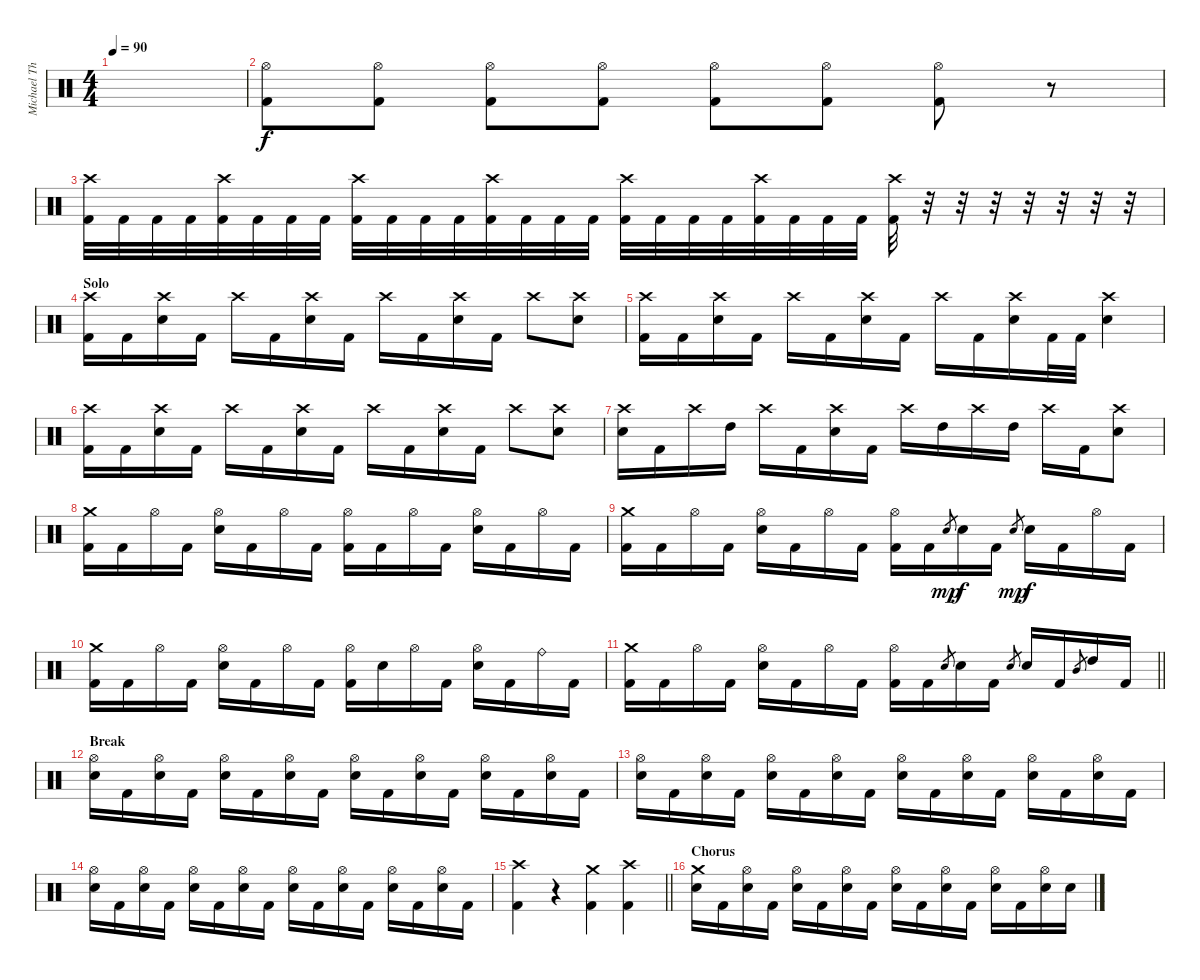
\track ("Michael Thomas" "Michael Th") {instrument percussion}
\staff {score}
\articulation defaults
\ts (4 4)
\tempo 90
\clef neutral
\ks c
|
("Hi-Hat (open)" "Kick (hit) 2").8 ("Hi-Hat (open)" "Kick (hit) 2").8 ("Hi-Hat (open)" "Kick (hit) 2").8 ("Hi-Hat (open)" "Kick (hit) 2").8 ("Hi-Hat (open)" "Kick (hit) 2").8 ("Hi-Hat (open)" "Kick (hit) 2").8 ("Hi-Hat (open)" "Kick (hit) 2").8 r.8 |
("Crash high (hit)" "Kick (hit) 2").32 "Kick (hit) 2".32 "Kick (hit) 2".32 "Kick (hit) 2".32 ("Crash high (hit)" "Kick (hit) 2").32 "Kick (hit) 2".32 "Kick (hit) 2".32 "Kick (hit) 2".32 ("Crash high (hit)" "Kick (hit) 2").32 "Kick (hit) 2".32 "Kick (hit) 2".32 "Kick (hit) 2".32 ("Crash high (hit)" "Kick (hit) 2").32 "Kick (hit) 2".32 "Kick (hit) 2".32 "Kick (hit) 2".32 ("Crash high (hit)" "Kick (hit) 2").32 "Kick (hit) 2".32 "Kick (hit) 2".32 "Kick (hit) 2".32 ("Crash high (hit)" "Kick (hit) 2").32 "Kick (hit) 2".32 "Kick (hit) 2".32 "Kick (hit) 2".32 ("Crash high (hit)" "Kick (hit) 2").32 r.32 r.32 r.32 r.32 r.32 r.32 r.32 |
\section ("" "Solo")
("Crash high (hit)" "Kick (hit) 2").16 "Kick (hit) 2".16 ("Crash high (hit)" "Electric Snare (hit)").16 "Kick (hit) 2".16 "Crash high (hit)".16 "Kick (hit) 2".16 ("Crash high (hit)" "Electric Snare (hit)").16 "Kick (hit) 2".16 "Crash high (hit)".16 "Kick (hit) 2".16 ("Crash high (hit)" "Electric Snare (hit)").16 "Kick (hit) 2".16 "Crash high (hit)".8 ("Crash high (hit)" "Electric Snare (hit)").8 |
("Crash high (hit)" "Kick (hit) 2").16 "Kick (hit) 2".16 ("Crash high (hit)" "Electric Snare (hit)").16 "Kick (hit) 2".16 "Crash high (hit)".16 "Kick (hit) 2".16 ("Crash high (hit)" "Electric Snare (hit)").16 "Kick (hit) 2".16 "Crash high (hit)".16 "Kick (hit) 2".16 ("Crash high (hit)" "Electric Snare (hit)").16 "Kick (hit) 2".32 "Kick (hit) 2".32 ("Crash high (hit)" "Electric Snare (hit)").4 |
("Crash high (hit)" "Kick (hit) 2").16 "Kick (hit) 2".16 ("Crash high (hit)" "Electric Snare (hit)").16 "Kick (hit) 2".16 "Crash high (hit)".16 "Kick (hit) 2".16 ("Crash high (hit)" "Electric Snare (hit)").16 "Kick (hit) 2".16 "Crash high (hit)".16 "Kick (hit) 2".16 ("Crash high (hit)" "Electric Snare (hit)").16 "Kick (hit) 2".16 "Crash high (hit)".8 ("Crash high (hit)" "Electric Snare (hit)").8 |
("Crash high (hit)" "Electric Snare (hit)").16 "Kick (hit) 2".16 "Crash high (hit)".16 "High Tom (hit)".16 "Crash high (hit)".16 "Kick (hit) 2".16 ("Crash high (hit)" "Electric Snare (hit)").16 "Kick (hit) 2".16 "Crash high (hit)".16 "High Tom (hit)".16 "Crash high (hit)".16 "High Tom (hit)".16 "Crash high (hit)".16 "Kick (hit) 2".16 ("Crash high (hit)" "Electric Snare (hit)").8 |
("Crash medium (hit)" "Kick (hit) 2").16 "Kick (hit) 2".16 "Hi-Hat (open)".16 "Kick (hit) 2".16 ("Hi-Hat (open)" "Electric Snare (hit)").16 "Kick (hit) 2".16 "Hi-Hat (open)".16 "Kick (hit) 2".16 ("Hi-Hat (open)" "Kick (hit) 2").16 "Kick (hit) 2".16 "Hi-Hat (open)".16 "Kick (hit) 2".16 ("Hi-Hat (open)" "Electric Snare (hit)").16 "Kick (hit) 2".16 "Hi-Hat (open)".16 "Kick (hit) 2".16 |
("Crash medium (hit)" "Kick (hit) 2").16 "Kick (hit) 2".16 "Hi-Hat (open)".16 "Kick (hit) 2".16 ("Hi-Hat (open)" "Electric Snare (hit)").16 "Kick (hit) 2".16 "Hi-Hat (open)".16 "Kick (hit) 2".16 ("Hi-Hat (open)" "Kick (hit) 2").16 "Kick (hit) 2".16 "Electric Snare (hit)".8{gr dy mp} "Electric Snare (hit)".16{dy f} "Kick (hit) 2".16 "Electric Snare (hit)".8{gr dy mp} "Electric Snare (hit)".16{dy f} "Kick (hit) 2".16 "Hi-Hat (open)".16 "Kick (hit) 2".16 |
("Crash medium (hit)" "Kick (hit) 2").16 "Kick (hit) 2".16 "Hi-Hat (open)".16 "Kick (hit) 2".16 ("Hi-Hat (open)" "Electric Snare (hit)").16 "Kick (hit) 2".16 "Hi-Hat (open)".16 "Kick (hit) 2".16 ("Hi-Hat (open)" "Kick (hit) 2").16 "Electric Snare (hit)".16 "Hi-Hat (open)".16 "Kick (hit) 2".16 ("Hi-Hat (open)" "Electric Snare (hit)").16 "Kick (hit) 2".16 "Ride (bell)".16 "Kick (hit) 2".16 |
\barLineRight lightlight
("Crash medium (hit)" "Kick (hit) 2").16 "Kick (hit) 2".16 "Hi-Hat (open)".16 "Kick (hit) 2".16 ("Hi-Hat (open)" "Electric Snare (hit)").16 "Kick (hit) 2".16 "Hi-Hat (open)".16 "Kick (hit) 2".16 ("Hi-Hat (open)" "Kick (hit) 2").16 "Kick (hit) 2".16 "Electric Snare (hit)".8{gr} "Electric Snare (hit)".16 "Kick (hit) 2".16 "Electric Snare (hit)".8{gr} "Electric Snare (hit)".16 "Kick (hit) 2".16 "Mid Tom (hit)".8{gr} "High Tom (hit)".16 "Kick (hit) 2".16 |
\section ("" "Break")
("Hi-Hat (open)" "Electric Snare (hit)").16{volume 6} "Kick (hit) 2".16 ("Hi-Hat (open)" "Electric Snare (hit)").16 "Kick (hit) 2".16 ("Hi-Hat (open)" "Electric Snare (hit)").16 "Kick (hit) 2".16 ("Hi-Hat (open)" "Electric Snare (hit)").16 "Kick (hit) 2".16 ("Hi-Hat (open)" "Electric Snare (hit)").16 "Kick (hit) 2".16 ("Hi-Hat (open)" "Electric Snare (hit)").16 "Kick (hit) 2".16 ("Hi-Hat (open)" "Electric Snare (hit)").16 "Kick (hit) 2".16 ("Hi-Hat (open)" "Electric Snare (hit)").16 "Kick (hit) 2".16 |
("Hi-Hat (open)" "Electric Snare (hit)").16 "Kick (hit) 2".16 ("Hi-Hat (open)" "Electric Snare (hit)").16 "Kick (hit) 2".16 ("Hi-Hat (open)" "Electric Snare (hit)").16 "Kick (hit) 2".16 ("Hi-Hat (open)" "Electric Snare (hit)").16 "Kick (hit) 2".16 ("Hi-Hat (open)" "Electric Snare (hit)").16 "Kick (hit) 2".16 ("Hi-Hat (open)" "Electric Snare (hit)").16 "Kick (hit) 2".16 ("Hi-Hat (open)" "Electric Snare (hit)").16 "Kick (hit) 2".16 ("Hi-Hat (open)" "Electric Snare (hit)").16 "Kick (hit) 2".16 |
("Hi-Hat (open)" "Electric Snare (hit)").16 "Kick (hit) 2".16 ("Hi-Hat (open)" "Electric Snare (hit)").16 "Kick (hit) 2".16 ("Hi-Hat (open)" "Electric Snare (hit)").16 "Kick (hit) 2".16 ("Hi-Hat (open)" "Electric Snare (hit)").16 "Kick (hit) 2".16 ("Hi-Hat (open)" "Electric Snare (hit)").16 "Kick (hit) 2".16 ("Hi-Hat (open)" "Electric Snare (hit)").16 "Kick (hit) 2".16 ("Hi-Hat (open)" "Electric Snare (hit)").16 "Kick (hit) 2".16 ("Hi-Hat (open)" "Electric Snare (hit)").16 "Kick (hit) 2".16 |
\barLineRight lightlight
("Crash high (hit)" "Kick (hit) 2").4{volume 13} r.4 ("Crash medium (hit)" "Kick (hit) 2").4 ("Crash high (hit)" "Kick (hit) 2").4{volume 13} |
\section ("" "Chorus")
("Crash medium (hit)" "Electric Snare (hit)").16 "Kick (hit) 2".16 ("Hi-Hat (open)" "Electric Snare (hit)").16 "Kick (hit) 2".16 ("Hi-Hat (open)" "Electric Snare (hit)").16 "Kick (hit) 2".16 ("Hi-Hat (open)" "Electric Snare (hit)").16 "Kick (hit) 2".16 ("Hi-Hat (open)" "Electric Snare (hit)").16 "Kick (hit) 2".16 ("Hi-Hat (open)" "Electric Snare (hit)").16 "Kick (hit) 2".16 ("Hi-Hat (open)" "Electric Snare (hit)").16 "Kick (hit) 2".16 ("Hi-Hat (open)" "Electric Snare (hit)").16 "Electric Snare (hit)".16
